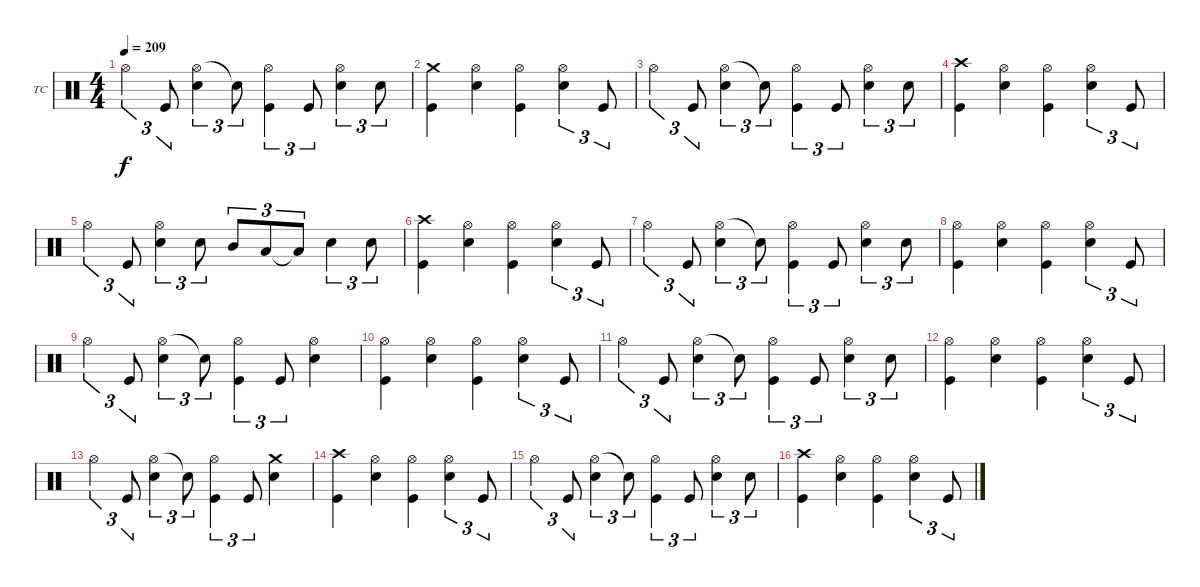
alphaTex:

\defaultSystemsLayout 4
\bracketExtendMode groupsimilarinstruments
\firstSystemTrackNameOrientation horizontal
\otherSystemsTrackNameOrientation horizontal
\track ("Drums - Tre Cool" "TC") {instrument percussion}
\staff {score}
\articulation defaults
\ts (4 4)
\tempo 209
\clef neutral
\ks c "Hi-Hat (open)".4{tu (3 2) dy f} "Kick (hit)".8{tu (3 2)}
("Hi-Hat (open)" "Snare (hit) 2").4{tu (3 2)} "Snare (hit) 2"{t}.8{tu (3 2)} ("Hi-Hat (open)" "Kick (hit)").4{tu (3 2)} "Kick (hit)".8{tu (3 2)} ("Hi-Hat (open)" "Snare (hit) 2").4{tu (3 2)} "Snare (hit) 2".8{tu (3 2)} |
("Crash medium (hit)" "Kick (hit)").4 ("Hi-Hat (open)" "Snare (hit) 2").4 ("Hi-Hat (open)" "Kick (hit)").4 ("Hi-Hat (open)" "Snare (hit) 2").4{tu (3 2)} "Kick (hit)".8{tu (3 2)} |
"Hi-Hat (open)".4{tu (3 2)} "Kick (hit)".8{tu (3 2)} ("Hi-Hat (open)" "Snare (hit) 2").4{tu (3 2)} "Snare (hit) 2"{t}.8{tu (3 2)} ("Hi-Hat (open)" "Kick (hit)").4{tu (3 2)} "Kick (hit)".8{tu (3 2)} ("Hi-Hat (open)" "Snare (hit) 2").4{tu (3 2)} "Snare (hit) 2".8{tu (3 2)} |
("Crash high (hit)" "Kick (hit)").4 ("Hi-Hat (open)" "Snare (hit) 2").4 ("Hi-Hat (open)" "Kick (hit)").4 ("Hi-Hat (open)" "Snare (hit) 2").4{tu (3 2)} "Kick (hit)".8{tu (3 2)} |
"Hi-Hat (open)".4{tu (3 2)} "Kick (hit)".8{tu (3 2)} ("Hi-Hat (open)" "Snare (hit) 2").4{tu (3 2)} "Snare (hit) 2".8{tu (3 2)} "Mid Tom (hit)".8{tu (3 2)} "Low Tom (hit)".8{tu (3 2)} "Low Tom (hit)"{t}.8{tu (3 2)} "Snare (hit) 2".4{tu (3 2)} "Snare (hit) 2".8{tu (3 2)} |
("Crash high (hit)" "Kick (hit)").4 ("Hi-Hat (open)" "Snare (hit) 2").4 ("Hi-Hat (open)" "Kick (hit)").4 ("Hi-Hat (open)" "Snare (hit) 2").4{tu (3 2)} "Kick (hit)".8{tu (3 2)} |
"Hi-Hat (open)".4{tu (3 2)} "Kick (hit)".8{tu (3 2)} ("Hi-Hat (open)" "Snare (hit) 2").4{tu (3 2)} "Snare (hit) 2"{t}.8{tu (3 2)} ("Hi-Hat (open)" "Kick (hit)").4{tu (3 2)} "Kick (hit)".8{tu (3 2)} ("Hi-Hat (open)" "Snare (hit) 2").4{tu (3 2)} "Snare (hit) 2".8{tu (3 2)} |
("Hi-Hat (open)" "Kick (hit)").4 ("Hi-Hat (open)" "Snare (hit) 2").4 ("Hi-Hat (open)" "Kick (hit)").4 ("Hi-Hat (open)" "Snare (hit) 2").4{tu (3 2)} "Kick (hit)".8{tu (3 2)} |
"Hi-Hat (open)".4{tu (3 2)} "Kick (hit)".8{tu (3 2)} ("Hi-Hat (open)" "Snare (hit) 2").4{tu (3 2)} "Snare (hit) 2"{t}.8{tu (3 2)} ("Hi-Hat (open)" "Kick (hit)").4{tu (3 2)} "Kick (hit)".8{tu (3 2)} ("Hi-Hat (open)" "Snare (hit) 2").4 |
("Hi-Hat (open)" "Kick (hit)").4 ("Hi-Hat (open)" "Snare (hit) 2").4 ("Hi-Hat (open)" "Kick (hit)").4 ("Hi-Hat (open)" "Snare (hit) 2").4{tu (3 2)} "Kick (hit)".8{tu (3 2)} |
"Hi-Hat (open)".4{tu (3 2)} "Kick (hit)".8{tu (3 2)} ("Hi-Hat (open)" "Snare (hit) 2").4{tu (3 2)} "Snare (hit) 2"{t}.8{tu (3 2)} ("Hi-Hat (open)" "Kick (hit)").4{tu (3 2)} "Kick (hit)".8{tu (3 2)} ("Hi-Hat (open)" "Snare (hit) 2").4{tu (3 2)} "Snare (hit) 2".8{tu (3 2)} |
("Hi-Hat (open)" "Kick (hit)").4 ("Hi-Hat (open)" "Snare (hit) 2").4 ("Hi-Hat (open)" "Kick (hit)").4 ("Hi-Hat (open)" "Snare (hit) 2").4{tu (3 2)} "Kick (hit)".8{tu (3 2)} |
"Hi-Hat (open)".4{tu (3 2)} "Kick (hit)".8{tu (3 2)} ("Hi-Hat (open)" "Snare (hit) 2").4{tu (3 2)} "Snare (hit) 2"{t}.8{tu (3 2)} ("Hi-Hat (open)" "Kick (hit)").4{tu (3 2)} "Kick (hit)".8{tu (3 2)} ("Crash medium (hit)" "Snare (hit) 2").4 |
("Crash high (hit)" "Kick (hit)").4 ("Hi-Hat (open)" "Snare (hit) 2").4 ("Hi-Hat (open)" "Kick (hit)").4 ("Hi-Hat (open)" "Snare (hit) 2").4{tu (3 2)} "Kick (hit)".8{tu (3 2)} |
"Hi-Hat (open)".4{tu (3 2)} "Kick (hit)".8{tu (3 2)} ("Hi-Hat (open)" "Snare (hit) 2").4{tu (3 2)} "Snare (hit) 2"{t}.8{tu (3 2)} ("Hi-Hat (open)" "Kick (hit)").4{tu (3 2)} "Kick (hit)".8{tu (3 2)} ("Hi-Hat (open)" "Snare (hit) 2").4{tu (3 2)} "Snare (hit) 2".8{tu (3 2)} |
("Crash high (hit)" "Kick (hit)").4 ("Hi-Hat (open)" "Snare (hit) 2").4 ("Hi-Hat (open)" "Kick (hit)").4 ("Hi-Hat (open)" "Snare (hit) 2").4{tu (3 2)} "Kick (hit)".8{tu (3 2)}
